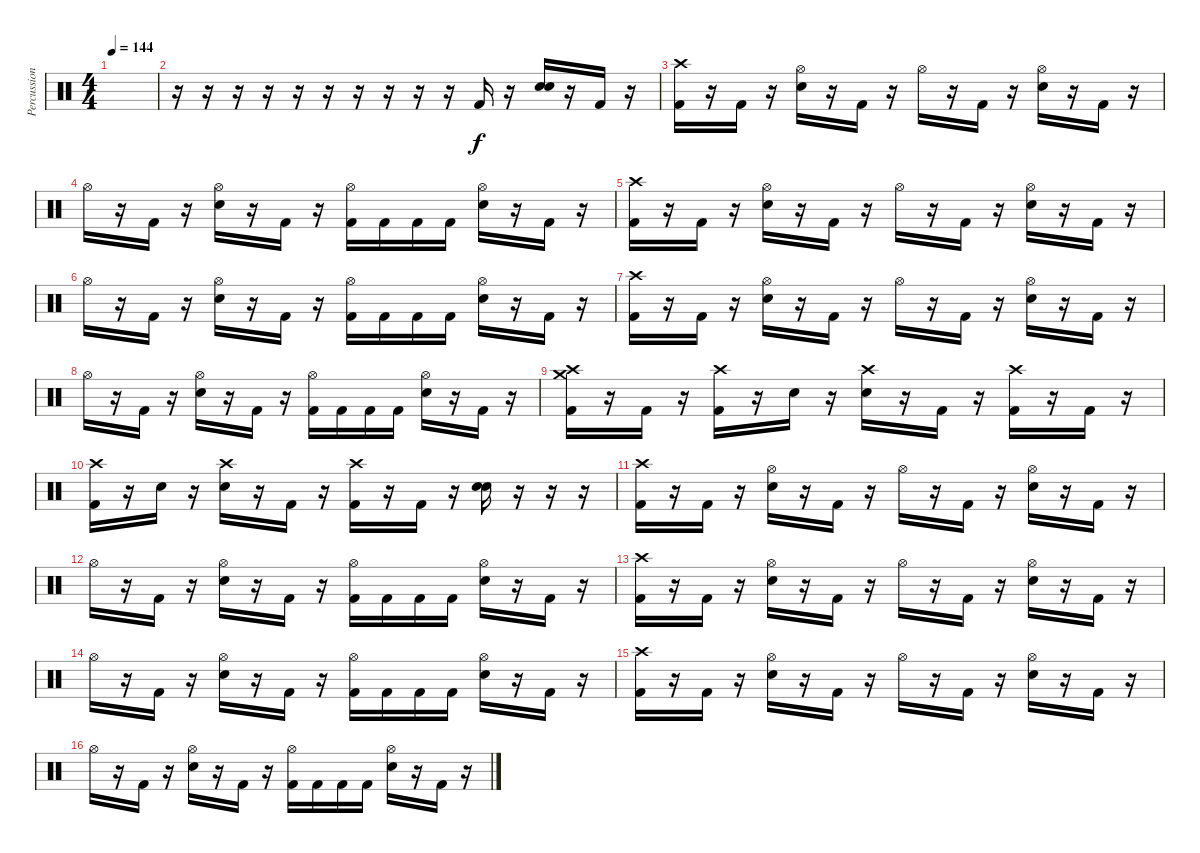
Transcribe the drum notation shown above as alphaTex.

\track ("Percussion" "Percussion") {instrument percussion}
\staff {score}
\articulation defaults
\ts (4 4)
\tempo 144
\clef neutral
\ks c
|
r.16 r.16 r.16 r.16 r.16 r.16 r.16 r.16 r.16 r.16 "Kick (hit) 2".16 r.16 ("Electric Snare (hit)" "Electric Snare (hit)").16{bd 480} r.16 "Kick (hit) 2".16 r.16 |
("Crash high (hit)" "Kick (hit) 2").16 r.16 "Kick (hit) 2".16 r.16 ("Hi-Hat (open)" "Electric Snare (hit)").16 r.16 "Kick (hit) 2".16 r.16 "Hi-Hat (open)".16 r.16 "Kick (hit) 2".16 r.16 ("Hi-Hat (open)" "Electric Snare (hit)").16 r.16 "Kick (hit) 2".16 r.16 |
"Hi-Hat (open)".16 r.16 "Kick (hit) 2".16 r.16 ("Hi-Hat (open)" "Electric Snare (hit)").16 r.16 "Kick (hit) 2".16 r.16 ("Hi-Hat (open)" "Kick (hit) 2").16 "Kick (hit) 2".16 "Kick (hit) 2".16 "Kick (hit) 2".16 ("Hi-Hat (open)" "Electric Snare (hit)").16 r.16 "Kick (hit) 2".16 r.16 |
("Crash high (hit)" "Kick (hit) 2").16 r.16 "Kick (hit) 2".16 r.16 ("Hi-Hat (open)" "Electric Snare (hit)").16 r.16 "Kick (hit) 2".16 r.16 "Hi-Hat (open)".16 r.16 "Kick (hit) 2".16 r.16 ("Hi-Hat (open)" "Electric Snare (hit)").16 r.16 "Kick (hit) 2".16 r.16 |
"Hi-Hat (open)".16 r.16 "Kick (hit) 2".16 r.16 ("Hi-Hat (open)" "Electric Snare (hit)").16 r.16 "Kick (hit) 2".16 r.16 ("Hi-Hat (open)" "Kick (hit) 2").16 "Kick (hit) 2".16 "Kick (hit) 2".16 "Kick (hit) 2".16 ("Hi-Hat (open)" "Electric Snare (hit)").16 r.16 "Kick (hit) 2".16 r.16 |
("Crash high (hit)" "Kick (hit) 2").16 r.16 "Kick (hit) 2".16 r.16 ("Hi-Hat (open)" "Electric Snare (hit)").16 r.16 "Kick (hit) 2".16 r.16 "Hi-Hat (open)".16 r.16 "Kick (hit) 2".16 r.16 ("Hi-Hat (open)" "Electric Snare (hit)").16 r.16 "Kick (hit) 2".16 r.16 |
"Hi-Hat (open)".16 r.16 "Kick (hit) 2".16 r.16 ("Hi-Hat (open)" "Electric Snare (hit)").16 r.16 "Kick (hit) 2".16 r.16 ("Hi-Hat (open)" "Kick (hit) 2").16 "Kick (hit) 2".16 "Kick (hit) 2".16 "Kick (hit) 2".16 ("Hi-Hat (open)" "Electric Snare (hit)").16 r.16 "Kick (hit) 2".16 r.16 |
("Crash medium (hit)" "Crash high (hit)" "Kick (hit) 2").16 r.16 "Kick (hit) 2".16 r.16 ("Crash high (hit)" "Kick (hit) 2").16 r.16 "Electric Snare (hit)".16 r.16 ("Crash high (hit)" "Electric Snare (hit)").16 r.16 "Kick (hit) 2".16 r.16 ("Crash high (hit)" "Kick (hit) 2").16 r.16 "Kick (hit) 2".16 r.16 |
("Crash high (hit)" "Kick (hit) 2").16 r.16 "Electric Snare (hit)".16 r.16 ("Crash high (hit)" "Electric Snare (hit)").16 r.16 "Kick (hit) 2".16 r.16 ("Crash high (hit)" "Kick (hit) 2").16 r.16 "Kick (hit) 2".16 r.16 ("Electric Snare (hit)" "Electric Snare (hit)").16{bd 480} r.16 r.16 r.16 |
("Crash high (hit)" "Kick (hit) 2").16 r.16 "Kick (hit) 2".16 r.16 ("Hi-Hat (open)" "Electric Snare (hit)").16 r.16 "Kick (hit) 2".16 r.16 "Hi-Hat (open)".16 r.16 "Kick (hit) 2".16 r.16 ("Hi-Hat (open)" "Electric Snare (hit)").16 r.16 "Kick (hit) 2".16 r.16 |
"Hi-Hat (open)".16 r.16 "Kick (hit) 2".16 r.16 ("Hi-Hat (open)" "Electric Snare (hit)").16 r.16 "Kick (hit) 2".16 r.16 ("Hi-Hat (open)" "Kick (hit) 2").16 "Kick (hit) 2".16 "Kick (hit) 2".16 "Kick (hit) 2".16 ("Hi-Hat (open)" "Electric Snare (hit)").16 r.16 "Kick (hit) 2".16 r.16 |
("Crash high (hit)" "Kick (hit) 2").16 r.16 "Kick (hit) 2".16 r.16 ("Hi-Hat (open)" "Electric Snare (hit)").16 r.16 "Kick (hit) 2".16 r.16 "Hi-Hat (open)".16 r.16 "Kick (hit) 2".16 r.16 ("Hi-Hat (open)" "Electric Snare (hit)").16 r.16 "Kick (hit) 2".16 r.16 |
"Hi-Hat (open)".16 r.16 "Kick (hit) 2".16 r.16 ("Hi-Hat (open)" "Electric Snare (hit)").16 r.16 "Kick (hit) 2".16 r.16 ("Hi-Hat (open)" "Kick (hit) 2").16 "Kick (hit) 2".16 "Kick (hit) 2".16 "Kick (hit) 2".16 ("Hi-Hat (open)" "Electric Snare (hit)").16 r.16 "Kick (hit) 2".16 r.16 |
("Crash high (hit)" "Kick (hit) 2").16 r.16 "Kick (hit) 2".16 r.16 ("Hi-Hat (open)" "Electric Snare (hit)").16 r.16 "Kick (hit) 2".16 r.16 "Hi-Hat (open)".16 r.16 "Kick (hit) 2".16 r.16 ("Hi-Hat (open)" "Electric Snare (hit)").16 r.16 "Kick (hit) 2".16 r.16 |
"Hi-Hat (open)".16 r.16 "Kick (hit) 2".16 r.16 ("Hi-Hat (open)" "Electric Snare (hit)").16 r.16 "Kick (hit) 2".16 r.16 ("Hi-Hat (open)" "Kick (hit) 2").16 "Kick (hit) 2".16 "Kick (hit) 2".16 "Kick (hit) 2".16 ("Hi-Hat (open)" "Electric Snare (hit)").16 r.16 "Kick (hit) 2".16 r.16
